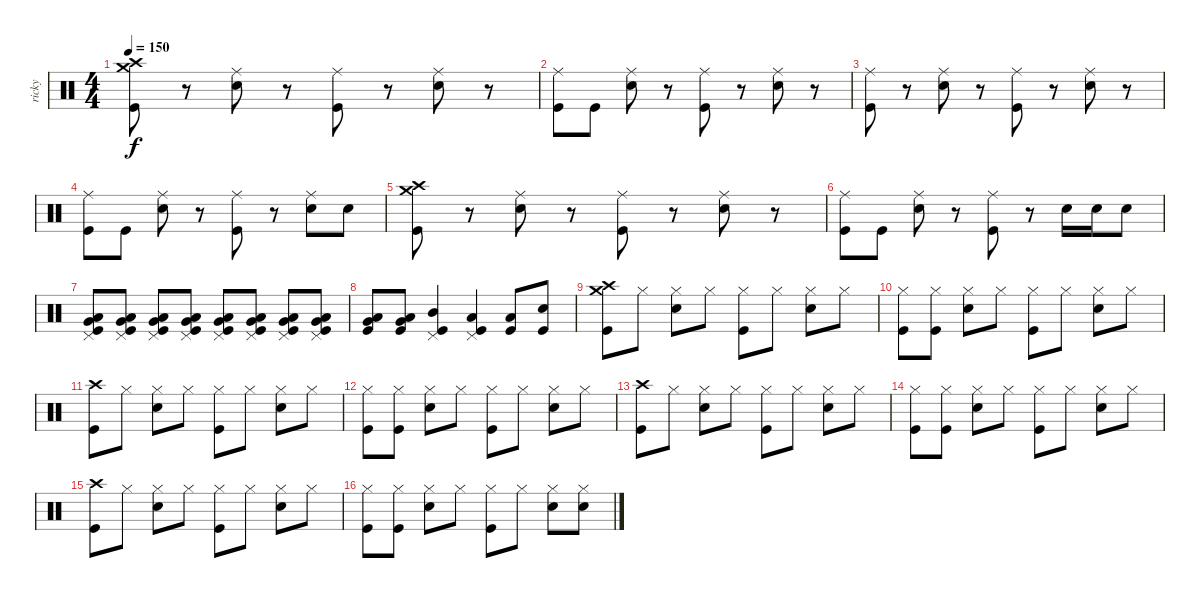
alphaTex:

\track ("ricky" "ricky") {instrument percussion}
\staff {score}
\articulation defaults
\ts (4 4)
\tempo 150
\clef neutral
\ks c
("Crash medium (hit)" "Crash high (hit)" "Kick (hit)").8{dy f} r.8 ("Ride (middle)" "Electric Snare (hit)").8 r.8 ("Ride (middle)" "Kick (hit)").8 r.8 ("Ride (middle)" "Electric Snare (hit)").8 r.8 |
("Ride (middle)" "Kick (hit)").8 "Kick (hit)".8 ("Ride (middle)" "Electric Snare (hit)").8 r.8 ("Ride (middle)" "Kick (hit)").8 r.8 ("Ride (middle)" "Electric Snare (hit)").8 r.8 |
("Ride (middle)" "Kick (hit)").8 r.8 ("Ride (middle)" "Electric Snare (hit)").8 r.8 ("Ride (middle)" "Kick (hit)").8 r.8 ("Ride (middle)" "Electric Snare (hit)").8 r.8 |
("Ride (middle)" "Kick (hit)").8 "Kick (hit)".8 ("Ride (middle)" "Electric Snare (hit)").8 r.8 ("Ride (middle)" "Kick (hit)").8 r.8 ("Ride (middle)" "Electric Snare (hit)").8 "Electric Snare (hit)".8 |
("Crash medium (hit)" "Crash high (hit)" "Kick (hit)").8 r.8 ("Ride (middle)" "Electric Snare (hit)").8 r.8 ("Ride (middle)" "Kick (hit)").8 r.8 ("Ride (middle)" "Electric Snare (hit)").8 r.8 |
("Ride (middle)" "Kick (hit)").8 "Kick (hit)".8 ("Ride (middle)" "Electric Snare (hit)").8 r.8 ("Ride (middle)" "Kick (hit)").8 r.8 "Electric Snare (hit)".16 "Electric Snare (hit)".16 "Electric Snare (hit)".8 |
("Pedal Hi-Hat (hit)" "Low Tom (hit)" "Very Low Tom (hit)" "Kick (hit)").8 ("Pedal Hi-Hat (hit)" "Low Tom (hit)" "Very Low Tom (hit)" "Kick (hit)").8 ("Pedal Hi-Hat (hit)" "Low Tom (hit)" "Very Low Tom (hit)" "Kick (hit)").8 ("Pedal Hi-Hat (hit)" "Low Tom (hit)" "Very Low Tom (hit)" "Kick (hit)").8 ("Pedal Hi-Hat (hit)" "Low Tom (hit)" "Very Low Tom (hit)" "Kick (hit)").8 ("Pedal Hi-Hat (hit)" "Low Tom (hit)" "Very Low Tom (hit)" "Kick (hit)").8 ("Pedal Hi-Hat (hit)" "Low Tom (hit)" "Very Low Tom (hit)" "Kick (hit)").8 ("Pedal Hi-Hat (hit)" "Low Tom (hit)" "Very Low Tom (hit)" "Kick (hit)").8 |
("Low Tom (hit)" "Very Low Tom (hit)" "Kick (hit)").8 ("Low Tom (hit)" "Very Low Tom (hit)" "Kick (hit)").8 ("Pedal Hi-Hat (hit)" "Mid Tom (hit)" "Kick (hit)").4 ("Pedal Hi-Hat (hit)" "Low Tom (hit)" "Kick (hit)").4 ("Low Tom (hit)" "Kick (hit)").8 ("Electric Snare (hit)" "Kick (hit)").8 |
("Crash medium (hit)" "Crash high (hit)" "Kick (hit)").8 "Hi-Hat (closed)".8 ("Hi-Hat (closed)" "Electric Snare (hit)").8 "Hi-Hat (closed)".8 ("Hi-Hat (closed)" "Kick (hit)").8 "Hi-Hat (closed)".8 ("Hi-Hat (closed)" "Electric Snare (hit)").8 "Hi-Hat (closed)".8 |
("Hi-Hat (closed)" "Kick (hit)").8 ("Hi-Hat (closed)" "Kick (hit)").8 ("Hi-Hat (closed)" "Electric Snare (hit)").8 "Hi-Hat (closed)".8 ("Hi-Hat (closed)" "Kick (hit)").8 "Hi-Hat (closed)".8 ("Hi-Hat (closed)" "Electric Snare (hit)").8 "Hi-Hat (closed)".8 |
("Crash high (hit)" "Kick (hit)").8 "Hi-Hat (closed)".8 ("Hi-Hat (closed)" "Electric Snare (hit)").8 "Hi-Hat (closed)".8 ("Hi-Hat (closed)" "Kick (hit)").8 "Hi-Hat (closed)".8 ("Hi-Hat (closed)" "Electric Snare (hit)").8 "Hi-Hat (closed)".8 |
("Hi-Hat (closed)" "Kick (hit)").8 ("Hi-Hat (closed)" "Kick (hit)").8 ("Hi-Hat (closed)" "Electric Snare (hit)").8 "Hi-Hat (closed)".8 ("Hi-Hat (closed)" "Kick (hit)").8 "Hi-Hat (closed)".8 ("Hi-Hat (closed)" "Electric Snare (hit)").8 "Hi-Hat (closed)".8 |
("Crash high (hit)" "Kick (hit)").8 "Hi-Hat (closed)".8 ("Hi-Hat (closed)" "Electric Snare (hit)").8 "Hi-Hat (closed)".8 ("Hi-Hat (closed)" "Kick (hit)").8 "Hi-Hat (closed)".8 ("Hi-Hat (closed)" "Electric Snare (hit)").8 "Hi-Hat (closed)".8 |
("Hi-Hat (closed)" "Kick (hit)").8 ("Hi-Hat (closed)" "Kick (hit)").8 ("Hi-Hat (closed)" "Electric Snare (hit)").8 "Hi-Hat (closed)".8 ("Hi-Hat (closed)" "Kick (hit)").8 "Hi-Hat (closed)".8 ("Hi-Hat (closed)" "Electric Snare (hit)").8 "Hi-Hat (closed)".8 |
("Crash high (hit)" "Kick (hit)").8 "Hi-Hat (closed)".8 ("Hi-Hat (closed)" "Electric Snare (hit)").8 "Hi-Hat (closed)".8 ("Hi-Hat (closed)" "Kick (hit)").8 "Hi-Hat (closed)".8 ("Hi-Hat (closed)" "Electric Snare (hit)").8 "Hi-Hat (closed)".8 |
("Hi-Hat (closed)" "Kick (hit)").8 ("Hi-Hat (closed)" "Kick (hit)").8 ("Hi-Hat (closed)" "Electric Snare (hit)").8 "Hi-Hat (closed)".8 ("Hi-Hat (closed)" "Kick (hit)").8 "Hi-Hat (closed)".8 ("Hi-Hat (closed)" "Electric Snare (hit)").8 ("Hi-Hat (closed)" "Electric Snare (hit)").8
